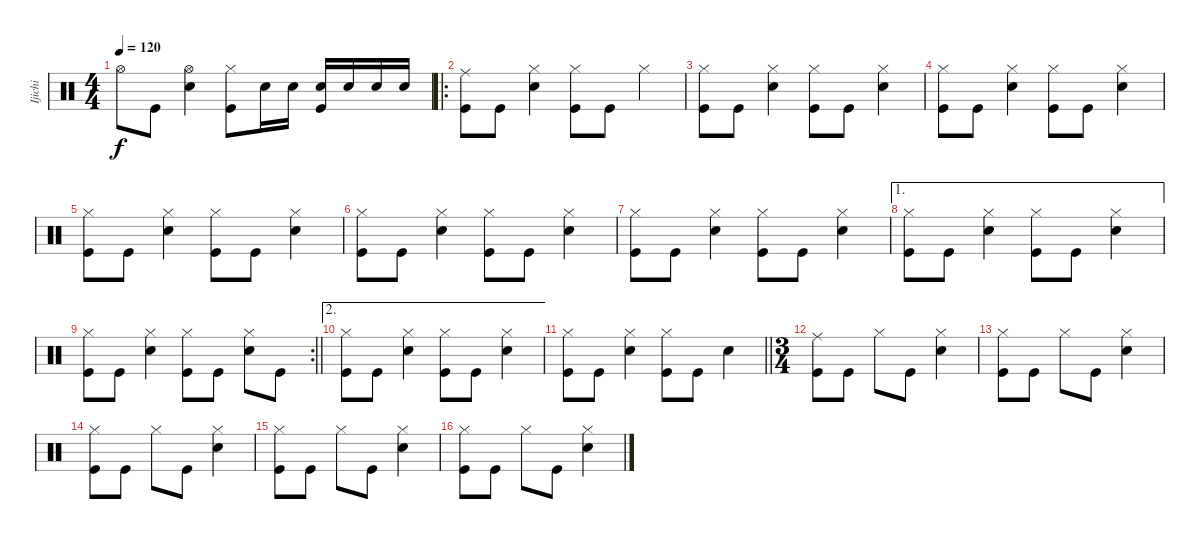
\track ("Ijichi" "Ijichi") {instrument percussion}
\staff {score}
\articulation defaults
\ts (4 4)
\tempo 120
\clef neutral
\ks c "Hi-Hat (open)".8{dy f} "Kick (hit)".8
("Hi-Hat (open)" "Snare (hit) 2").4 ("Hi-Hat (closed)" "Kick (hit)").8 "Snare (hit) 2".16 "Snare (hit) 2".16 ("Snare (hit) 2" "Kick (hit)").16 "Snare (hit) 2".16 "Snare (hit) 2".16 "Snare (hit) 2".16 |
\ro
("Ride (middle)" "Kick (hit)").8 "Kick (hit)".8 ("Hi-Hat (closed)" "Snare (hit) 2").4 ("Hi-Hat (closed)" "Kick (hit)").8 "Kick (hit)".8 "Hi-Hat (closed)".4 |
("Hi-Hat (closed)" "Kick (hit)").8 "Kick (hit)".8 ("Hi-Hat (closed)" "Snare (hit) 2").4 ("Hi-Hat (closed)" "Kick (hit)").8 "Kick (hit)".8 ("Hi-Hat (closed)" "Snare (hit) 2").4 |
("Hi-Hat (closed)" "Kick (hit)").8 "Kick (hit)".8 ("Hi-Hat (closed)" "Snare (hit) 2").4 ("Hi-Hat (closed)" "Kick (hit)").8 "Kick (hit)".8 ("Hi-Hat (closed)" "Snare (hit) 2").4 |
("Hi-Hat (closed)" "Kick (hit)").8 "Kick (hit)".8 ("Hi-Hat (closed)" "Snare (hit) 2").4 ("Hi-Hat (closed)" "Kick (hit)").8 "Kick (hit)".8 ("Hi-Hat (closed)" "Snare (hit) 2").4 |
("Hi-Hat (closed)" "Kick (hit)").8 "Kick (hit)".8 ("Hi-Hat (closed)" "Snare (hit) 2").4 ("Hi-Hat (closed)" "Kick (hit)").8 "Kick (hit)".8 ("Hi-Hat (closed)" "Snare (hit) 2").4 |
("Hi-Hat (closed)" "Kick (hit)").8 "Kick (hit)".8 ("Hi-Hat (closed)" "Snare (hit) 2").4 ("Hi-Hat (closed)" "Kick (hit)").8 "Kick (hit)".8 ("Hi-Hat (closed)" "Snare (hit) 2").4 |
\ae 1
("Hi-Hat (closed)" "Kick (hit)").8 "Kick (hit)".8 ("Hi-Hat (closed)" "Snare (hit) 2").4 ("Hi-Hat (closed)" "Kick (hit)").8 "Kick (hit)".8 ("Hi-Hat (closed)" "Snare (hit) 2").4 |
\rc 2
\barLineRight lightlight
("Hi-Hat (closed)" "Kick (hit)").8 "Kick (hit)".8 ("Hi-Hat (closed)" "Snare (hit) 2").4 ("Hi-Hat (closed)" "Kick (hit)").8 "Kick (hit)".8 ("Hi-Hat (closed)" "Snare (hit) 2").8 "Kick (hit)".8 |
\ae 2
("Hi-Hat (closed)" "Kick (hit)").8 "Kick (hit)".8 ("Hi-Hat (closed)" "Snare (hit) 2").4 ("Hi-Hat (closed)" "Kick (hit)").8 "Kick (hit)".8 ("Hi-Hat (closed)" "Snare (hit) 2").4 |
\barLineRight lightlight
("Hi-Hat (closed)" "Kick (hit)").8 "Kick (hit)".8 ("Hi-Hat (closed)" "Snare (hit) 2").4 ("Hi-Hat (closed)" "Kick (hit)").8 "Kick (hit)".8 "Snare (hit) 2".4 |
\ts (3 4)
("Ride (middle)" "Kick (hit)").8 "Kick (hit)".8 "Hi-Hat (closed)".8 "Kick (hit)".8 ("Hi-Hat (closed)" "Snare (hit) 2").4 |
("Hi-Hat (closed)" "Kick (hit)").8 "Kick (hit)".8 "Hi-Hat (closed)".8 "Kick (hit)".8 ("Hi-Hat (closed)" "Snare (hit) 2").4 |
("Hi-Hat (closed)" "Kick (hit)").8 "Kick (hit)".8 "Hi-Hat (closed)".8 "Kick (hit)".8 ("Hi-Hat (closed)" "Snare (hit) 2").4 |
("Hi-Hat (closed)" "Kick (hit)").8 "Kick (hit)".8 "Hi-Hat (closed)".8 "Kick (hit)".8 ("Hi-Hat (closed)" "Snare (hit) 2").4 |
("Hi-Hat (closed)" "Kick (hit)").8 "Kick (hit)".8 "Hi-Hat (closed)".8 "Kick (hit)".8 ("Hi-Hat (closed)" "Snare (hit) 2").4
